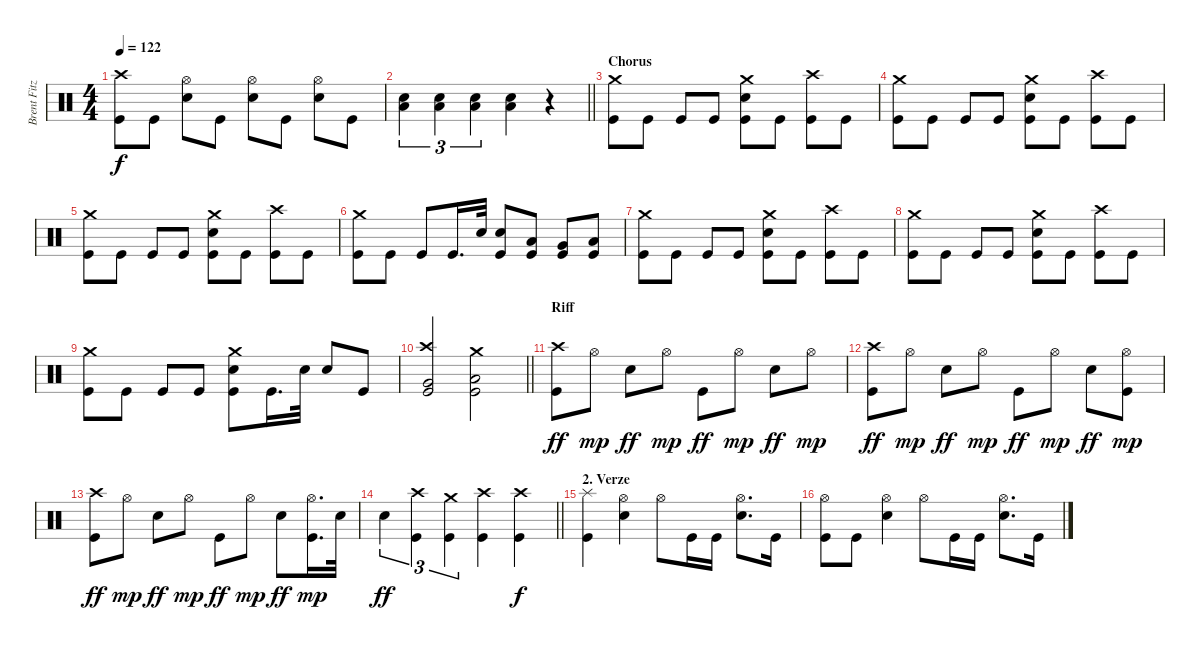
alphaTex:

\track ("Brent Fitz" "Brent Fitz") {instrument percussion}
\staff {score}
\articulation defaults
\ts (4 4)
\tempo 122
\clef neutral
\ks c
("Kick (hit)" "Crash high (hit)").8{dy f} "Kick (hit)".8 ("Snare (hit) 2" "Hi-Hat (open)").8 "Kick (hit)".8 ("Snare (hit) 2" "Hi-Hat (open)").8 "Kick (hit)".8 ("Snare (hit) 2" "Hi-Hat (open)").8 "Kick (hit)".8 |
\barLineRight lightlight
("Snare (hit) 2" "Low Floor Tom (hit)").4{tu (3 2)} ("Snare (hit) 2" "Low Floor Tom (hit)").4{tu (3 2)} ("Snare (hit) 2" "Low Floor Tom (hit)").4{tu (3 2)} ("Snare (hit) 2" "Low Floor Tom (hit)").4 r.4 |
\section ("" "Chorus")
("Kick (hit)" "Crash medium (hit)").8 "Kick (hit)".8 "Kick (hit)".8 "Kick (hit)".8 ("Snare (hit) 2" "Crash medium (hit)" "Kick (hit)").8 "Kick (hit)".8 ("Kick (hit)" "Crash high (hit)").8 "Kick (hit)".8 |
("Kick (hit)" "Crash medium (hit)").8 "Kick (hit)".8 "Kick (hit)".8 "Kick (hit)".8 ("Snare (hit) 2" "Crash medium (hit)" "Kick (hit)").8 "Kick (hit)".8 ("Kick (hit)" "Crash high (hit)").8 "Kick (hit)".8 |
("Kick (hit)" "Crash medium (hit)").8 "Kick (hit)".8 "Kick (hit)".8 "Kick (hit)".8 ("Snare (hit) 2" "Crash medium (hit)" "Kick (hit)").8 "Kick (hit)".8 ("Kick (hit)" "Crash high (hit)").8 "Kick (hit)".8 |
("Kick (hit)" "Crash medium (hit)").8 "Kick (hit)".8 "Kick (hit)".8 "Kick (hit)".16{d} "Snare (hit) 2".32 ("Snare (hit) 2" "Kick (hit)").8 ("Low Tom (hit)" "Kick (hit)").8 ("Very Low Tom (hit)" "Kick (hit)").8 ("Low Floor Tom (hit)" "Kick (hit)").8 |
("Kick (hit)" "Crash medium (hit)").8 "Kick (hit)".8 "Kick (hit)".8 "Kick (hit)".8 ("Snare (hit) 2" "Crash medium (hit)" "Kick (hit)").8 "Kick (hit)".8 ("Kick (hit)" "Crash high (hit)").8 "Kick (hit)".8 |
("Kick (hit)" "Crash medium (hit)").8 "Kick (hit)".8 "Kick (hit)".8 "Kick (hit)".8 ("Snare (hit) 2" "Crash medium (hit)" "Kick (hit)").8 "Kick (hit)".8 ("Kick (hit)" "Crash high (hit)").8 "Kick (hit)".8 |
("Kick (hit)" "Crash medium (hit)").8 "Kick (hit)".8 "Kick (hit)".8 "Kick (hit)".8 ("Snare (hit) 2" "Crash medium (hit)" "Kick (hit)").8 "Kick (hit)".16{d} "Snare (hit) 2".32 "Snare (hit) 2".8 "Kick (hit)".8 |
\barLineRight lightlight
("Very Low Tom (hit)" "Crash high (hit)" "Kick (hit)").2 ("Low Floor Tom (hit)" "Kick (hit)" "Crash medium (hit)").2 |
\section ("" "Riff")
("Kick (hit)" "Crash high (hit)").8{dy ff} "Hi-Hat (open)".8{dy mp} "Snare (hit) 2".8{dy ff} "Hi-Hat (open)".8{dy mp} "Kick (hit)".8{dy ff} "Hi-Hat (open)".8{dy mp} "Snare (hit) 2".8{dy ff} "Hi-Hat (open)".8{dy mp} |
("Kick (hit)" "Crash high (hit)").8{dy ff} "Hi-Hat (open)".8{dy mp} "Snare (hit) 2".8{dy ff} "Hi-Hat (open)".8{dy mp} "Kick (hit)".8{dy ff} "Hi-Hat (open)".8{dy mp} "Snare (hit) 2".8{dy ff} ("Hi-Hat (open)" "Kick (hit)").8{dy mp} |
("Kick (hit)" "Crash high (hit)").8{dy ff} "Hi-Hat (open)".8{dy mp} "Snare (hit) 2".8{dy ff} "Hi-Hat (open)".8{dy mp} "Kick (hit)".8{dy ff} "Hi-Hat (open)".8{dy mp} "Snare (hit) 2".8{dy ff} ("Hi-Hat (open)" "Kick (hit)").16{d dy mp} "Snare (hit) 2".32 |
\barLineRight lightlight "Snare (hit) 2".4{tu (3 2) dy ff}
("Kick (hit)" "Crash high (hit)").4{tu (3 2)} ("Kick (hit)" "Crash medium (hit)").4{tu (3 2)} ("Kick (hit)" "Crash high (hit)").4 ("Kick (hit)" "Crash high (hit)").4{dy f} |
\section ("" "2. Verze")
("Kick (hit)" "Splash (hit)").4 ("Snare (hit) 2" "Hi-Hat (open)").4 "Hi-Hat (open)".8 "Kick (hit)".16 "Kick (hit)".16 ("Snare (hit) 2" "Hi-Hat (open)").8{d} "Kick (hit)".16 |
("Kick (hit)" "Hi-Hat (open)").8 "Kick (hit)".8 ("Snare (hit) 2" "Hi-Hat (open)").4 "Hi-Hat (open)".8 "Kick (hit)".16 "Kick (hit)".16 ("Snare (hit) 2" "Hi-Hat (open)").8{d} "Kick (hit)".16
